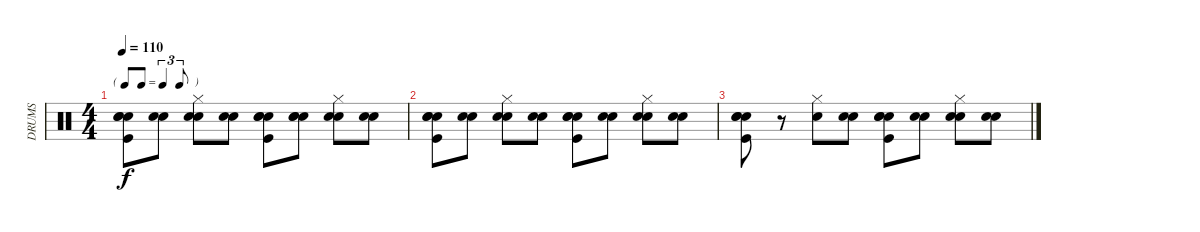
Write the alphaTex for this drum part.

\track ("DRUMS" "DRUMS") {instrument percussion}
\staff {score}
\articulation defaults
\ts (4 4)
\tf triplet8th
\tempo 110
\clef neutral
\ks c
("Snare (hit)" "Kick (hit)" "Snare (hit) 2" "Electric Snare (hit)").8{dy f} ("Snare (hit)" "Electric Snare (hit)").8 ("Snare (hit)" "Snare (hit) 2" "Hi-Hat (closed)").8 ("Snare (hit)" "Snare (hit) 2").8 ("Snare (hit)" "Kick (hit)" "Snare (hit) 2" "Electric Snare (hit)").8 ("Snare (hit)" "Snare (hit) 2" "Electric Snare (hit)").8 ("Snare (hit)" "Snare (hit) 2" "Hi-Hat (closed)").8 ("Snare (hit)" "Snare (hit) 2").8 |
("Snare (hit)" "Kick (hit)" "Snare (hit) 2" "Electric Snare (hit)").8 ("Snare (hit)" "Electric Snare (hit)").8 ("Snare (hit)" "Snare (hit) 2" "Hi-Hat (closed)").8 ("Snare (hit)" "Snare (hit) 2").8 ("Snare (hit)" "Kick (hit)" "Snare (hit) 2" "Electric Snare (hit)").8 ("Snare (hit)" "Electric Snare (hit)").8 ("Snare (hit)" "Snare (hit) 2" "Hi-Hat (closed)").8 ("Snare (hit)" "Snare (hit) 2").8 |
("Snare (hit)" "Kick (hit)" "Snare (hit) 2" "Electric Snare (hit)").8 r.8 ("Snare (hit) 2" "Hi-Hat (closed)").8 ("Snare (hit)" "Snare (hit) 2").8 ("Snare (hit)" "Kick (hit)" "Snare (hit) 2" "Electric Snare (hit)").8 ("Snare (hit)" "Electric Snare (hit)").8 ("Snare (hit)" "Snare (hit) 2" "Hi-Hat (closed)").8 ("Snare (hit)" "Snare (hit) 2").8
